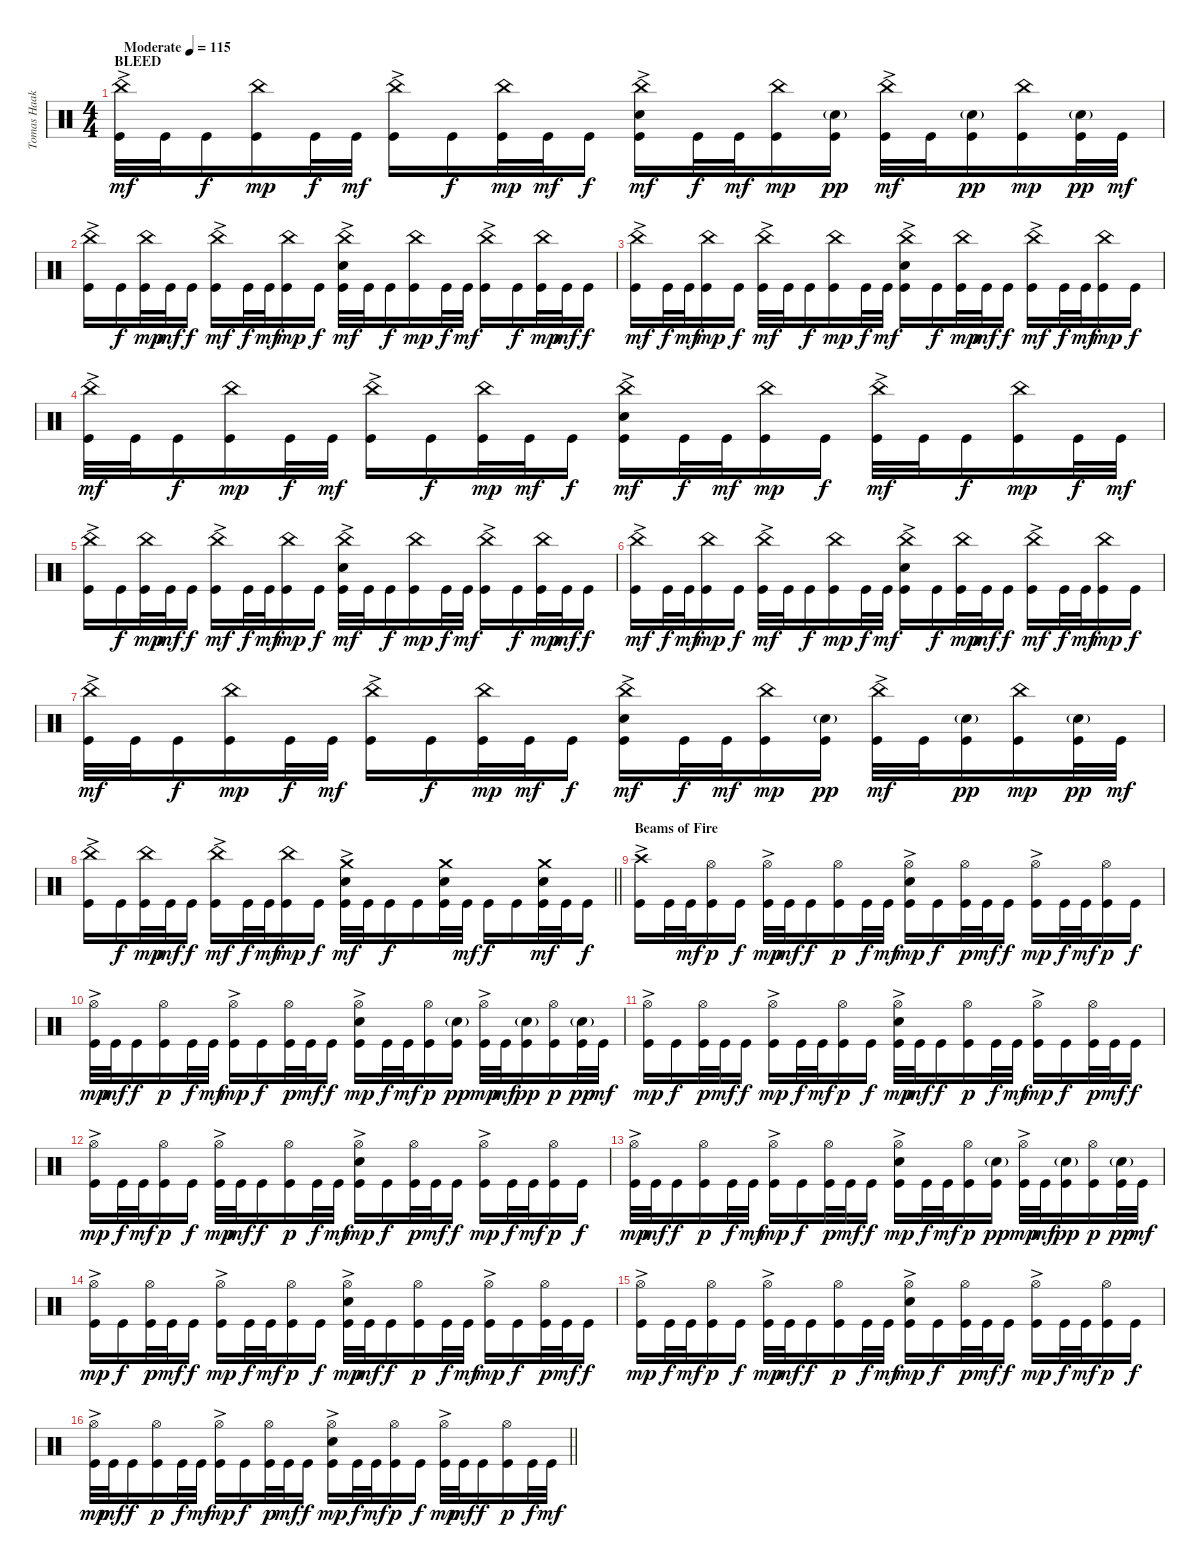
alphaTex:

\track ("Tomas Haake (Drums)" "Tomas Haak") {instrument percussion}
\staff {score}
\articulation defaults
\ts (4 4)
\section ("" "BLEED")
\tempo (115 "Moderate")
\clef neutral
\ks c
("China (hit)"{ac} "Kick (hit)").32{dy mf} "Kick (hit)".32 "Kick (hit)".16{dy f} ("China (hit)" "Kick (hit)").16{dy mp} "Kick (hit)".32{dy f} "Kick (hit)".32{dy mf} ("China (hit)"{ac} "Kick (hit)").16 "Kick (hit)".16{dy f} ("China (hit)" "Kick (hit)").32{dy mp} "Kick (hit)".32{dy mf} "Kick (hit)".16{dy f} ("China (hit)"{ac} "Electric Snare (hit)" "Kick (hit)").16{dy mf} "Kick (hit)".32{dy f} "Kick (hit)".32{dy mf} ("China (hit)" "Kick (hit)").16{dy mp} ("Electric Snare (hit)"{g} "Kick (hit)").16{dy pp} ("China (hit)"{ac} "Kick (hit)").32{dy mf} "Kick (hit)".32 ("Electric Snare (hit)"{g} "Kick (hit)").16{dy pp} ("China (hit)" "Kick (hit)").16{dy mp} ("Electric Snare (hit)"{g} "Kick (hit)").32{dy pp} "Kick (hit)".32{dy mf} |
("China (hit)"{ac} "Kick (hit)").16 "Kick (hit)".16{dy f} ("China (hit)" "Kick (hit)").32{dy mp} "Kick (hit)".32{dy mf} "Kick (hit)".16{dy f} ("China (hit)"{ac} "Kick (hit)").16{dy mf} "Kick (hit)".32{dy f} "Kick (hit)".32{dy mf} ("China (hit)" "Kick (hit)").16{dy mp} "Kick (hit)".16{dy f} ("China (hit)"{ac} "Electric Snare (hit)" "Kick (hit)").32{dy mf} "Kick (hit)".32 "Kick (hit)".16{dy f} ("China (hit)" "Kick (hit)").16{dy mp} "Kick (hit)".32{dy f} "Kick (hit)".32{dy mf} ("China (hit)"{ac} "Kick (hit)").16 "Kick (hit)".16{dy f} ("China (hit)" "Kick (hit)").32{dy mp} "Kick (hit)".32{dy mf} "Kick (hit)".16{dy f} |
("China (hit)"{ac} "Kick (hit)").16{dy mf} "Kick (hit)".32{dy f} "Kick (hit)".32{dy mf} ("China (hit)" "Kick (hit)").16{dy mp} "Kick (hit)".16{dy f} ("China (hit)"{ac} "Kick (hit)").32{dy mf} "Kick (hit)".32 "Kick (hit)".16{dy f} ("China (hit)" "Kick (hit)").16{dy mp} "Kick (hit)".32{dy f} "Kick (hit)".32{dy mf} ("China (hit)"{ac} "Electric Snare (hit)" "Kick (hit)").16 "Kick (hit)".16{dy f} ("China (hit)" "Kick (hit)").32{dy mp} "Kick (hit)".32{dy mf} "Kick (hit)".16{dy f} ("China (hit)"{ac} "Kick (hit)").16{dy mf} "Kick (hit)".32{dy f} "Kick (hit)".32{dy mf} ("China (hit)" "Kick (hit)").16{dy mp} "Kick (hit)".16{dy f} |
("China (hit)"{ac} "Kick (hit)").32{dy mf} "Kick (hit)".32 "Kick (hit)".16{dy f} ("China (hit)" "Kick (hit)").16{dy mp} "Kick (hit)".32{dy f} "Kick (hit)".32{dy mf} ("China (hit)"{ac} "Kick (hit)").16 "Kick (hit)".16{dy f} ("China (hit)" "Kick (hit)").32{dy mp} "Kick (hit)".32{dy mf} "Kick (hit)".16{dy f} ("China (hit)"{ac} "Electric Snare (hit)" "Kick (hit)").16{dy mf} "Kick (hit)".32{dy f} "Kick (hit)".32{dy mf} ("China (hit)" "Kick (hit)").16{dy mp} "Kick (hit)".16{dy f} ("China (hit)"{ac} "Kick (hit)").32{dy mf} "Kick (hit)".32 "Kick (hit)".16{dy f} ("China (hit)" "Kick (hit)").16{dy mp} "Kick (hit)".32{dy f} "Kick (hit)".32{dy mf} |
("China (hit)"{ac} "Kick (hit)").16 "Kick (hit)".16{dy f} ("China (hit)" "Kick (hit)").32{dy mp} "Kick (hit)".32{dy mf} "Kick (hit)".16{dy f} ("China (hit)"{ac} "Kick (hit)").16{dy mf} "Kick (hit)".32{dy f} "Kick (hit)".32{dy mf} ("China (hit)" "Kick (hit)").16{dy mp} "Kick (hit)".16{dy f} ("China (hit)"{ac} "Electric Snare (hit)" "Kick (hit)").32{dy mf} "Kick (hit)".32 "Kick (hit)".16{dy f} ("China (hit)" "Kick (hit)").16{dy mp} "Kick (hit)".32{dy f} "Kick (hit)".32{dy mf} ("China (hit)"{ac} "Kick (hit)").16 "Kick (hit)".16{dy f} ("China (hit)" "Kick (hit)").32{dy mp} "Kick (hit)".32{dy mf} "Kick (hit)".16{dy f} |
("China (hit)"{ac} "Kick (hit)").16{dy mf} "Kick (hit)".32{dy f} "Kick (hit)".32{dy mf} ("China (hit)" "Kick (hit)").16{dy mp} "Kick (hit)".16{dy f} ("China (hit)"{ac} "Kick (hit)").32{dy mf} "Kick (hit)".32 "Kick (hit)".16{dy f} ("China (hit)" "Kick (hit)").16{dy mp} "Kick (hit)".32{dy f} "Kick (hit)".32{dy mf} ("China (hit)"{ac} "Electric Snare (hit)" "Kick (hit)").16 "Kick (hit)".16{dy f} ("China (hit)" "Kick (hit)").32{dy mp} "Kick (hit)".32{dy mf} "Kick (hit)".16{dy f} ("China (hit)"{ac} "Kick (hit)").16{dy mf} "Kick (hit)".32{dy f} "Kick (hit)".32{dy mf} ("China (hit)" "Kick (hit)").16{dy mp} "Kick (hit)".16{dy f} |
("China (hit)"{ac} "Kick (hit)").32{dy mf} "Kick (hit)".32 "Kick (hit)".16{dy f} ("China (hit)" "Kick (hit)").16{dy mp} "Kick (hit)".32{dy f} "Kick (hit)".32{dy mf} ("China (hit)"{ac} "Kick (hit)").16 "Kick (hit)".16{dy f} ("China (hit)" "Kick (hit)").32{dy mp} "Kick (hit)".32{dy mf} "Kick (hit)".16{dy f} ("China (hit)"{ac} "Electric Snare (hit)" "Kick (hit)").16{dy mf} "Kick (hit)".32{dy f} "Kick (hit)".32{dy mf} ("China (hit)" "Kick (hit)").16{dy mp} ("Electric Snare (hit)"{g} "Kick (hit)").16{dy pp} ("China (hit)"{ac} "Kick (hit)").32{dy mf} "Kick (hit)".32 ("Electric Snare (hit)"{g} "Kick (hit)").16{dy pp} ("China (hit)" "Kick (hit)").16{dy mp} ("Electric Snare (hit)"{g} "Kick (hit)").32{dy pp} "Kick (hit)".32{dy mf} |
\barLineRight lightlight
("China (hit)"{ac} "Kick (hit)").16 "Kick (hit)".16{dy f} ("China (hit)" "Kick (hit)").32{dy mp} "Kick (hit)".32{dy mf} "Kick (hit)".16{dy f} ("China (hit)"{ac} "Kick (hit)").16{dy mf} "Kick (hit)".32{dy f} "Kick (hit)".32{dy mf} ("China (hit)" "Kick (hit)").16{dy mp} "Kick (hit)".16{dy f} ("Crash medium (hit)"{ac} "Electric Snare (hit)" "Kick (hit)").32{dy mf} "Kick (hit)".32 "Kick (hit)".16{dy f} "Kick (hit)".16 ("Crash medium (hit)" "Electric Snare (hit)" "Kick (hit)").32 "Kick (hit)".32{dy mf} "Kick (hit)".16{dy f} "Kick (hit)".16 ("Crash medium (hit)" "Electric Snare (hit)" "Kick (hit)").32{dy mf} "Kick (hit)".32 "Kick (hit)".16{dy f} |
\section ("" "Beams of Fire")
("Crash high (hit)"{ac} "Kick (hit)").16 "Kick (hit)".32 "Kick (hit)".32{dy mf} ("Hi-Hat (open)" "Kick (hit)").16{dy p} "Kick (hit)".16{dy f} ("Hi-Hat (open)"{ac} "Kick (hit)").32{dy mp} "Kick (hit)".32{dy mf} "Kick (hit)".16{dy f} ("Hi-Hat (open)" "Kick (hit)").16{dy p} "Kick (hit)".32{dy f} "Kick (hit)".32{dy mf} ("Hi-Hat (open)"{ac} "Electric Snare (hit)" "Kick (hit)").16{dy mp} "Kick (hit)".16{dy f} ("Hi-Hat (open)" "Kick (hit)").32{dy p} "Kick (hit)".32{dy mf} "Kick (hit)".16{dy f} ("Hi-Hat (open)"{ac} "Kick (hit)").16{dy mp} "Kick (hit)".32{dy f} "Kick (hit)".32{dy mf} ("Hi-Hat (open)" "Kick (hit)").16{dy p} "Kick (hit)".16{dy f} |
("Hi-Hat (open)"{ac} "Kick (hit)").32{dy mp} "Kick (hit)".32{dy mf} "Kick (hit)".16{dy f} ("Hi-Hat (open)" "Kick (hit)").16{dy p} "Kick (hit)".32{dy f} "Kick (hit)".32{dy mf} ("Hi-Hat (open)"{ac} "Kick (hit)").16{dy mp} "Kick (hit)".16{dy f} ("Hi-Hat (open)" "Kick (hit)").32{dy p} "Kick (hit)".32{dy mf} "Kick (hit)".16{dy f} ("Hi-Hat (open)"{ac} "Electric Snare (hit)" "Kick (hit)").16{dy mp} "Kick (hit)".32{dy f} "Kick (hit)".32{dy mf} ("Hi-Hat (open)" "Kick (hit)").16{dy p} ("Electric Snare (hit)"{g} "Kick (hit)").16{dy pp} ("Hi-Hat (open)"{ac} "Kick (hit)").32{dy mp} "Kick (hit)".32{dy mf} ("Electric Snare (hit)"{g} "Kick (hit)").16{dy pp} ("Hi-Hat (open)" "Kick (hit)").16{dy p} ("Electric Snare (hit)"{g} "Kick (hit)").32{dy pp} "Kick (hit)".32{dy mf} |
("Hi-Hat (open)"{ac} "Kick (hit)").16{dy mp} "Kick (hit)".16{dy f} ("Hi-Hat (open)" "Kick (hit)").32{dy p} "Kick (hit)".32{dy mf} "Kick (hit)".16{dy f} ("Hi-Hat (open)"{ac} "Kick (hit)").16{dy mp} "Kick (hit)".32{dy f} "Kick (hit)".32{dy mf} ("Hi-Hat (open)" "Kick (hit)").16{dy p} "Kick (hit)".16{dy f} ("Hi-Hat (open)"{ac} "Electric Snare (hit)" "Kick (hit)").32{dy mp} "Kick (hit)".32{dy mf} "Kick (hit)".16{dy f} ("Hi-Hat (open)" "Kick (hit)").16{dy p} "Kick (hit)".32{dy f} "Kick (hit)".32{dy mf} ("Hi-Hat (open)"{ac} "Kick (hit)").16{dy mp} "Kick (hit)".16{dy f} ("Hi-Hat (open)" "Kick (hit)").32{dy p} "Kick (hit)".32{dy mf} "Kick (hit)".16{dy f} |
("Hi-Hat (open)"{ac} "Kick (hit)").16{dy mp} "Kick (hit)".32{dy f} "Kick (hit)".32{dy mf} ("Hi-Hat (open)" "Kick (hit)").16{dy p} "Kick (hit)".16{dy f} ("Hi-Hat (open)"{ac} "Kick (hit)").32{dy mp} "Kick (hit)".32{dy mf} "Kick (hit)".16{dy f} ("Hi-Hat (open)" "Kick (hit)").16{dy p} "Kick (hit)".32{dy f} "Kick (hit)".32{dy mf} ("Hi-Hat (open)"{ac} "Electric Snare (hit)" "Kick (hit)").16{dy mp} "Kick (hit)".16{dy f} ("Hi-Hat (open)" "Kick (hit)").32{dy p} "Kick (hit)".32{dy mf} "Kick (hit)".16{dy f} ("Hi-Hat (open)"{ac} "Kick (hit)").16{dy mp} "Kick (hit)".32{dy f} "Kick (hit)".32{dy mf} ("Hi-Hat (open)" "Kick (hit)").16{dy p} "Kick (hit)".16{dy f} |
("Hi-Hat (open)"{ac} "Kick (hit)").32{dy mp} "Kick (hit)".32{dy mf} "Kick (hit)".16{dy f} ("Hi-Hat (open)" "Kick (hit)").16{dy p} "Kick (hit)".32{dy f} "Kick (hit)".32{dy mf} ("Hi-Hat (open)"{ac} "Kick (hit)").16{dy mp} "Kick (hit)".16{dy f} ("Hi-Hat (open)" "Kick (hit)").32{dy p} "Kick (hit)".32{dy mf} "Kick (hit)".16{dy f} ("Hi-Hat (open)"{ac} "Electric Snare (hit)" "Kick (hit)").16{dy mp} "Kick (hit)".32{dy f} "Kick (hit)".32{dy mf} ("Hi-Hat (open)" "Kick (hit)").16{dy p} ("Electric Snare (hit)"{g} "Kick (hit)").16{dy pp} ("Hi-Hat (open)"{ac} "Kick (hit)").32{dy mp} "Kick (hit)".32{dy mf} ("Electric Snare (hit)"{g} "Kick (hit)").16{dy pp} ("Hi-Hat (open)" "Kick (hit)").16{dy p} ("Electric Snare (hit)"{g} "Kick (hit)").32{dy pp} "Kick (hit)".32{dy mf} |
("Hi-Hat (open)"{ac} "Kick (hit)").16{dy mp} "Kick (hit)".16{dy f} ("Hi-Hat (open)" "Kick (hit)").32{dy p} "Kick (hit)".32{dy mf} "Kick (hit)".16{dy f} ("Hi-Hat (open)"{ac} "Kick (hit)").16{dy mp} "Kick (hit)".32{dy f} "Kick (hit)".32{dy mf} ("Hi-Hat (open)" "Kick (hit)").16{dy p} "Kick (hit)".16{dy f} ("Hi-Hat (open)"{ac} "Electric Snare (hit)" "Kick (hit)").32{dy mp} "Kick (hit)".32{dy mf} "Kick (hit)".16{dy f} ("Hi-Hat (open)" "Kick (hit)").16{dy p} "Kick (hit)".32{dy f} "Kick (hit)".32{dy mf} ("Hi-Hat (open)"{ac} "Kick (hit)").16{dy mp} "Kick (hit)".16{dy f} ("Hi-Hat (open)" "Kick (hit)").32{dy p} "Kick (hit)".32{dy mf} "Kick (hit)".16{dy f} |
("Hi-Hat (open)"{ac} "Kick (hit)").16{dy mp} "Kick (hit)".32{dy f} "Kick (hit)".32{dy mf} ("Hi-Hat (open)" "Kick (hit)").16{dy p} "Kick (hit)".16{dy f} ("Hi-Hat (open)"{ac} "Kick (hit)").32{dy mp} "Kick (hit)".32{dy mf} "Kick (hit)".16{dy f} ("Hi-Hat (open)" "Kick (hit)").16{dy p} "Kick (hit)".32{dy f} "Kick (hit)".32{dy mf} ("Hi-Hat (open)"{ac} "Electric Snare (hit)" "Kick (hit)").16{dy mp} "Kick (hit)".16{dy f} ("Hi-Hat (open)" "Kick (hit)").32{dy p} "Kick (hit)".32{dy mf} "Kick (hit)".16{dy f} ("Hi-Hat (open)"{ac} "Kick (hit)").16{dy mp} "Kick (hit)".32{dy f} "Kick (hit)".32{dy mf} ("Hi-Hat (open)" "Kick (hit)").16{dy p} "Kick (hit)".16{dy f} |
\barLineRight lightlight
("Hi-Hat (open)"{ac} "Kick (hit)").32{dy mp} "Kick (hit)".32{dy mf} "Kick (hit)".16{dy f} ("Hi-Hat (open)" "Kick (hit)").16{dy p} "Kick (hit)".32{dy f} "Kick (hit)".32{dy mf} ("Hi-Hat (open)"{ac} "Kick (hit)").16{dy mp} "Kick (hit)".16{dy f} ("Hi-Hat (open)" "Kick (hit)").32{dy p} "Kick (hit)".32{dy mf} "Kick (hit)".16{dy f} ("Hi-Hat (open)"{ac} "Electric Snare (hit)" "Kick (hit)").16{dy mp} "Kick (hit)".32{dy f} "Kick (hit)".32{dy mf} ("Hi-Hat (open)" "Kick (hit)").16{dy p} "Kick (hit)".16{dy f} ("Hi-Hat (open)"{ac} "Kick (hit)").32{dy mp} "Kick (hit)".32{dy mf} "Kick (hit)".16{dy f} ("Hi-Hat (open)" "Kick (hit)").16{dy p} "Kick (hit)".32{dy f} "Kick (hit)".32{dy mf}
